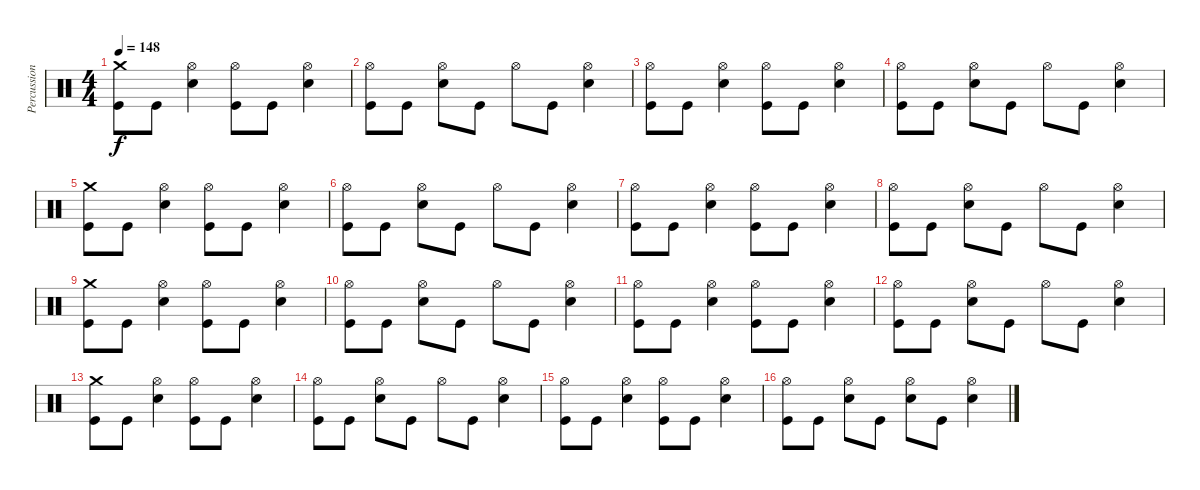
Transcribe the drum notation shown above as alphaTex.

\track ("Percussion" "Percussion") {instrument percussion}
\staff {score}
\articulation defaults
\ts (4 4)
\tempo 148
\clef neutral
\ks c
("Crash medium (hit)" "Kick (hit)").8{dy f} "Kick (hit)".8 ("Hi-Hat (open)" "Electric Snare (hit)").4 ("Hi-Hat (open)" "Kick (hit)").8 "Kick (hit)".8 ("Hi-Hat (open)" "Electric Snare (hit)").4 |
("Hi-Hat (open)" "Kick (hit)").8 "Kick (hit)".8 ("Hi-Hat (open)" "Electric Snare (hit)").8 "Kick (hit)".8 "Hi-Hat (open)".8 "Kick (hit)".8 ("Hi-Hat (open)" "Electric Snare (hit)").4 |
("Hi-Hat (open)" "Kick (hit)").8 "Kick (hit)".8 ("Hi-Hat (open)" "Electric Snare (hit)").4 ("Hi-Hat (open)" "Kick (hit)").8 "Kick (hit)".8 ("Hi-Hat (open)" "Electric Snare (hit)").4 |
("Hi-Hat (open)" "Kick (hit)").8 "Kick (hit)".8 ("Hi-Hat (open)" "Electric Snare (hit)").8 "Kick (hit)".8 "Hi-Hat (open)".8 "Kick (hit)".8 ("Hi-Hat (open)" "Electric Snare (hit)").4 |
("Crash medium (hit)" "Kick (hit)").8 "Kick (hit)".8 ("Hi-Hat (open)" "Electric Snare (hit)").4 ("Hi-Hat (open)" "Kick (hit)").8 "Kick (hit)".8 ("Hi-Hat (open)" "Electric Snare (hit)").4 |
("Hi-Hat (open)" "Kick (hit)").8 "Kick (hit)".8 ("Hi-Hat (open)" "Electric Snare (hit)").8 "Kick (hit)".8 "Hi-Hat (open)".8 "Kick (hit)".8 ("Hi-Hat (open)" "Electric Snare (hit)").4 |
("Hi-Hat (open)" "Kick (hit)").8 "Kick (hit)".8 ("Hi-Hat (open)" "Electric Snare (hit)").4 ("Hi-Hat (open)" "Kick (hit)").8 "Kick (hit)".8 ("Hi-Hat (open)" "Electric Snare (hit)").4 |
("Hi-Hat (open)" "Kick (hit)").8 "Kick (hit)".8 ("Hi-Hat (open)" "Electric Snare (hit)").8 "Kick (hit)".8 "Hi-Hat (open)".8 "Kick (hit)".8 ("Hi-Hat (open)" "Electric Snare (hit)").4 |
("Crash medium (hit)" "Kick (hit)").8 "Kick (hit)".8 ("Hi-Hat (open)" "Electric Snare (hit)").4 ("Hi-Hat (open)" "Kick (hit)").8 "Kick (hit)".8 ("Hi-Hat (open)" "Electric Snare (hit)").4 |
("Hi-Hat (open)" "Kick (hit)").8 "Kick (hit)".8 ("Hi-Hat (open)" "Electric Snare (hit)").8 "Kick (hit)".8 "Hi-Hat (open)".8 "Kick (hit)".8 ("Hi-Hat (open)" "Electric Snare (hit)").4 |
("Hi-Hat (open)" "Kick (hit)").8 "Kick (hit)".8 ("Hi-Hat (open)" "Electric Snare (hit)").4 ("Hi-Hat (open)" "Kick (hit)").8 "Kick (hit)".8 ("Hi-Hat (open)" "Electric Snare (hit)").4 |
("Hi-Hat (open)" "Kick (hit)").8 "Kick (hit)".8 ("Hi-Hat (open)" "Electric Snare (hit)").8 "Kick (hit)".8 "Hi-Hat (open)".8 "Kick (hit)".8 ("Hi-Hat (open)" "Electric Snare (hit)").4 |
("Crash medium (hit)" "Kick (hit)").8 "Kick (hit)".8 ("Hi-Hat (open)" "Electric Snare (hit)").4 ("Hi-Hat (open)" "Kick (hit)").8 "Kick (hit)".8 ("Hi-Hat (open)" "Electric Snare (hit)").4 |
("Hi-Hat (open)" "Kick (hit)").8 "Kick (hit)".8 ("Hi-Hat (open)" "Electric Snare (hit)").8 "Kick (hit)".8 "Hi-Hat (open)".8 "Kick (hit)".8 ("Hi-Hat (open)" "Electric Snare (hit)").4 |
("Hi-Hat (open)" "Kick (hit)").8 "Kick (hit)".8 ("Hi-Hat (open)" "Electric Snare (hit)").4 ("Hi-Hat (open)" "Kick (hit)").8 "Kick (hit)".8 ("Hi-Hat (open)" "Electric Snare (hit)").4 |
("Hi-Hat (open)" "Kick (hit)").8 "Kick (hit)".8 ("Hi-Hat (open)" "Electric Snare (hit)").8 "Kick (hit)".8 ("Hi-Hat (open)" "Electric Snare (hit)").8 "Kick (hit)".8 ("Hi-Hat (open)" "Electric Snare (hit)").4
